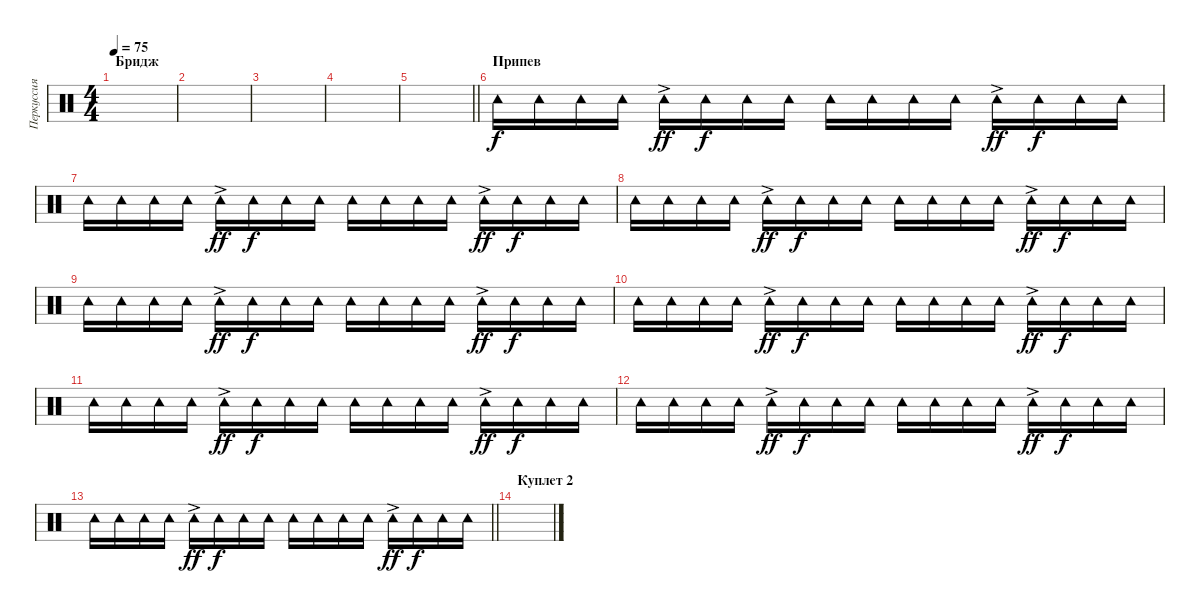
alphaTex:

\track ("Перкуссия" "Перкуссия") {instrument percussion}
\staff {score}
\articulation defaults
\ts (4 4)
\section ("" "Бридж")
\tempo 75
\clef neutral
\ks c
|
|
|
|
\barLineRight lightlight
|
\section ("" "Припев")
"Tambourine (hit)".16{volume 5} "Tambourine (hit)".16 "Tambourine (hit)".16 "Tambourine (hit)".16 "Tambourine (hit)"{ac}.16{dy ff} "Tambourine (hit)".16{dy f} "Tambourine (hit)".16 "Tambourine (hit)".16 "Tambourine (hit)".16 "Tambourine (hit)".16 "Tambourine (hit)".16 "Tambourine (hit)".16 "Tambourine (hit)"{ac}.16{dy ff} "Tambourine (hit)".16{dy f} "Tambourine (hit)".16 "Tambourine (hit)".16 |
"Tambourine (hit)".16 "Tambourine (hit)".16 "Tambourine (hit)".16 "Tambourine (hit)".16 "Tambourine (hit)"{ac}.16{dy ff} "Tambourine (hit)".16{dy f} "Tambourine (hit)".16 "Tambourine (hit)".16 "Tambourine (hit)".16 "Tambourine (hit)".16 "Tambourine (hit)".16 "Tambourine (hit)".16 "Tambourine (hit)"{ac}.16{dy ff} "Tambourine (hit)".16{dy f} "Tambourine (hit)".16 "Tambourine (hit)".16 |
"Tambourine (hit)".16 "Tambourine (hit)".16 "Tambourine (hit)".16 "Tambourine (hit)".16 "Tambourine (hit)"{ac}.16{dy ff} "Tambourine (hit)".16{dy f} "Tambourine (hit)".16 "Tambourine (hit)".16 "Tambourine (hit)".16 "Tambourine (hit)".16 "Tambourine (hit)".16 "Tambourine (hit)".16 "Tambourine (hit)"{ac}.16{dy ff} "Tambourine (hit)".16{dy f} "Tambourine (hit)".16 "Tambourine (hit)".16 |
"Tambourine (hit)".16 "Tambourine (hit)".16 "Tambourine (hit)".16 "Tambourine (hit)".16 "Tambourine (hit)"{ac}.16{dy ff} "Tambourine (hit)".16{dy f} "Tambourine (hit)".16 "Tambourine (hit)".16 "Tambourine (hit)".16 "Tambourine (hit)".16 "Tambourine (hit)".16 "Tambourine (hit)".16 "Tambourine (hit)"{ac}.16{dy ff} "Tambourine (hit)".16{dy f} "Tambourine (hit)".16 "Tambourine (hit)".16 |
"Tambourine (hit)".16 "Tambourine (hit)".16 "Tambourine (hit)".16 "Tambourine (hit)".16 "Tambourine (hit)"{ac}.16{dy ff} "Tambourine (hit)".16{dy f} "Tambourine (hit)".16 "Tambourine (hit)".16 "Tambourine (hit)".16 "Tambourine (hit)".16 "Tambourine (hit)".16 "Tambourine (hit)".16 "Tambourine (hit)"{ac}.16{dy ff} "Tambourine (hit)".16{dy f} "Tambourine (hit)".16 "Tambourine (hit)".16 |
"Tambourine (hit)".16 "Tambourine (hit)".16 "Tambourine (hit)".16 "Tambourine (hit)".16 "Tambourine (hit)"{ac}.16{dy ff} "Tambourine (hit)".16{dy f} "Tambourine (hit)".16 "Tambourine (hit)".16 "Tambourine (hit)".16 "Tambourine (hit)".16 "Tambourine (hit)".16 "Tambourine (hit)".16 "Tambourine (hit)"{ac}.16{dy ff} "Tambourine (hit)".16{dy f} "Tambourine (hit)".16 "Tambourine (hit)".16 |
"Tambourine (hit)".16 "Tambourine (hit)".16 "Tambourine (hit)".16 "Tambourine (hit)".16 "Tambourine (hit)"{ac}.16{dy ff} "Tambourine (hit)".16{dy f} "Tambourine (hit)".16 "Tambourine (hit)".16 "Tambourine (hit)".16 "Tambourine (hit)".16 "Tambourine (hit)".16 "Tambourine (hit)".16 "Tambourine (hit)"{ac}.16{dy ff} "Tambourine (hit)".16{dy f} "Tambourine (hit)".16 "Tambourine (hit)".16 |
\barLineRight lightlight "Tambourine (hit)".16 "Tambourine (hit)".16 "Tambourine (hit)".16 "Tambourine (hit)".16 "Tambourine (hit)"{ac}.16{dy ff} "Tambourine (hit)".16{dy f} "Tambourine (hit)".16 "Tambourine (hit)".16 "Tambourine (hit)".16 "Tambourine (hit)".16 "Tambourine (hit)".16 "Tambourine (hit)".16 "Tambourine (hit)"{ac}.16{dy ff} "Tambourine (hit)".16{dy f} "Tambourine (hit)".16 "Tambourine (hit)".16
|
\section ("" "Куплет 2")
